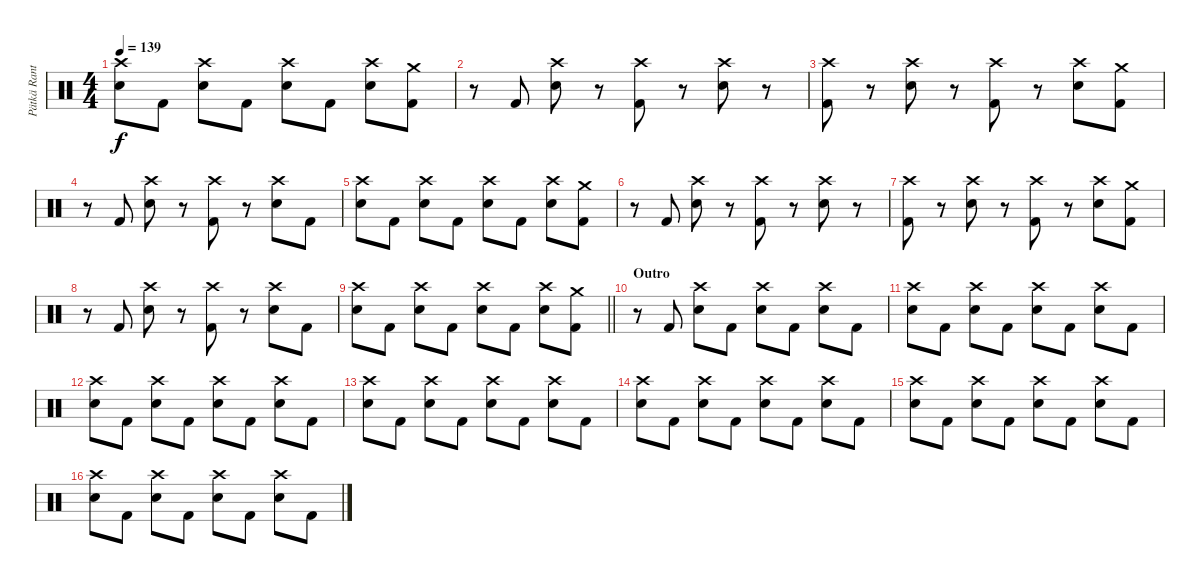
\track ("Pätkä Rantala (Drums)" "Pätkä Rant") {instrument percussion}
\staff {score}
\articulation defaults
\ts (4 4)
\tempo 139
\clef neutral
\ks c
("Crash high (hit)" "Snare (hit) 2").8{dy f} "Kick (hit) 2".8 ("Crash high (hit)" "Snare (hit) 2").8 "Kick (hit) 2".8 ("Crash high (hit)" "Snare (hit) 2").8 "Kick (hit) 2".8 ("Crash high (hit)" "Snare (hit) 2").8 ("Crash medium (hit)" "Kick (hit) 2").8 |
r.8 "Kick (hit) 2".8 ("Crash high (hit)" "Snare (hit) 2").8 r.8 ("Crash high (hit)" "Kick (hit) 2").8 r.8 ("Crash high (hit)" "Snare (hit) 2").8 r.8 |
("Crash high (hit)" "Kick (hit) 2").8 r.8 ("Crash high (hit)" "Snare (hit) 2").8 r.8 ("Crash high (hit)" "Kick (hit) 2").8 r.8 ("Crash high (hit)" "Snare (hit) 2").8 ("Crash medium (hit)" "Kick (hit) 2").8 |
r.8 "Kick (hit) 2".8 ("Crash high (hit)" "Snare (hit) 2").8 r.8 ("Crash high (hit)" "Kick (hit) 2").8 r.8 ("Crash high (hit)" "Snare (hit) 2").8 "Kick (hit) 2".8 |
("Crash high (hit)" "Snare (hit) 2").8 "Kick (hit) 2".8 ("Crash high (hit)" "Snare (hit) 2").8 "Kick (hit) 2".8 ("Crash high (hit)" "Snare (hit) 2").8 "Kick (hit) 2".8 ("Crash high (hit)" "Snare (hit) 2").8 ("Crash medium (hit)" "Kick (hit) 2").8 |
r.8 "Kick (hit) 2".8 ("Crash high (hit)" "Snare (hit) 2").8 r.8 ("Crash high (hit)" "Kick (hit) 2").8 r.8 ("Crash high (hit)" "Snare (hit) 2").8 r.8 |
("Crash high (hit)" "Kick (hit) 2").8 r.8 ("Crash high (hit)" "Snare (hit) 2").8 r.8 ("Crash high (hit)" "Kick (hit) 2").8 r.8 ("Crash high (hit)" "Snare (hit) 2").8 ("Crash medium (hit)" "Kick (hit) 2").8 |
r.8 "Kick (hit) 2".8 ("Crash high (hit)" "Snare (hit) 2").8 r.8 ("Crash high (hit)" "Kick (hit) 2").8 r.8 ("Crash high (hit)" "Snare (hit) 2").8 "Kick (hit) 2".8 |
\barLineRight lightlight
("Crash high (hit)" "Snare (hit) 2").8 "Kick (hit) 2".8 ("Crash high (hit)" "Snare (hit) 2").8 "Kick (hit) 2".8 ("Crash high (hit)" "Snare (hit) 2").8 "Kick (hit) 2".8 ("Crash high (hit)" "Snare (hit) 2").8 ("Crash medium (hit)" "Kick (hit) 2").8 |
\section ("" "Outro")
r.8 "Kick (hit) 2".8 ("Crash high (hit)" "Snare (hit) 2").8 "Kick (hit) 2".8 ("Crash high (hit)" "Snare (hit) 2").8 "Kick (hit) 2".8 ("Crash high (hit)" "Snare (hit) 2").8 "Kick (hit) 2".8 |
("Crash high (hit)" "Snare (hit) 2").8 "Kick (hit) 2".8 ("Crash high (hit)" "Snare (hit) 2").8 "Kick (hit) 2".8 ("Crash high (hit)" "Snare (hit) 2").8 "Kick (hit) 2".8 ("Crash high (hit)" "Snare (hit) 2").8 "Kick (hit) 2".8 |
("Crash high (hit)" "Snare (hit) 2").8 "Kick (hit) 2".8 ("Crash high (hit)" "Snare (hit) 2").8 "Kick (hit) 2".8 ("Crash high (hit)" "Snare (hit) 2").8 "Kick (hit) 2".8 ("Crash high (hit)" "Snare (hit) 2").8 "Kick (hit) 2".8 |
("Crash high (hit)" "Snare (hit) 2").8 "Kick (hit) 2".8 ("Crash high (hit)" "Snare (hit) 2").8 "Kick (hit) 2".8 ("Crash high (hit)" "Snare (hit) 2").8 "Kick (hit) 2".8 ("Crash high (hit)" "Snare (hit) 2").8 "Kick (hit) 2".8 |
("Crash high (hit)" "Snare (hit) 2").8 "Kick (hit) 2".8 ("Crash high (hit)" "Snare (hit) 2").8 "Kick (hit) 2".8 ("Crash high (hit)" "Snare (hit) 2").8 "Kick (hit) 2".8 ("Crash high (hit)" "Snare (hit) 2").8 "Kick (hit) 2".8 |
("Crash high (hit)" "Snare (hit) 2").8 "Kick (hit) 2".8 ("Crash high (hit)" "Snare (hit) 2").8 "Kick (hit) 2".8 ("Crash high (hit)" "Snare (hit) 2").8 "Kick (hit) 2".8 ("Crash high (hit)" "Snare (hit) 2").8 "Kick (hit) 2".8 |
("Crash high (hit)" "Snare (hit) 2").8 "Kick (hit) 2".8 ("Crash high (hit)" "Snare (hit) 2").8 "Kick (hit) 2".8 ("Crash high (hit)" "Snare (hit) 2").8 "Kick (hit) 2".8 ("Crash high (hit)" "Snare (hit) 2").8 "Kick (hit) 2".8
